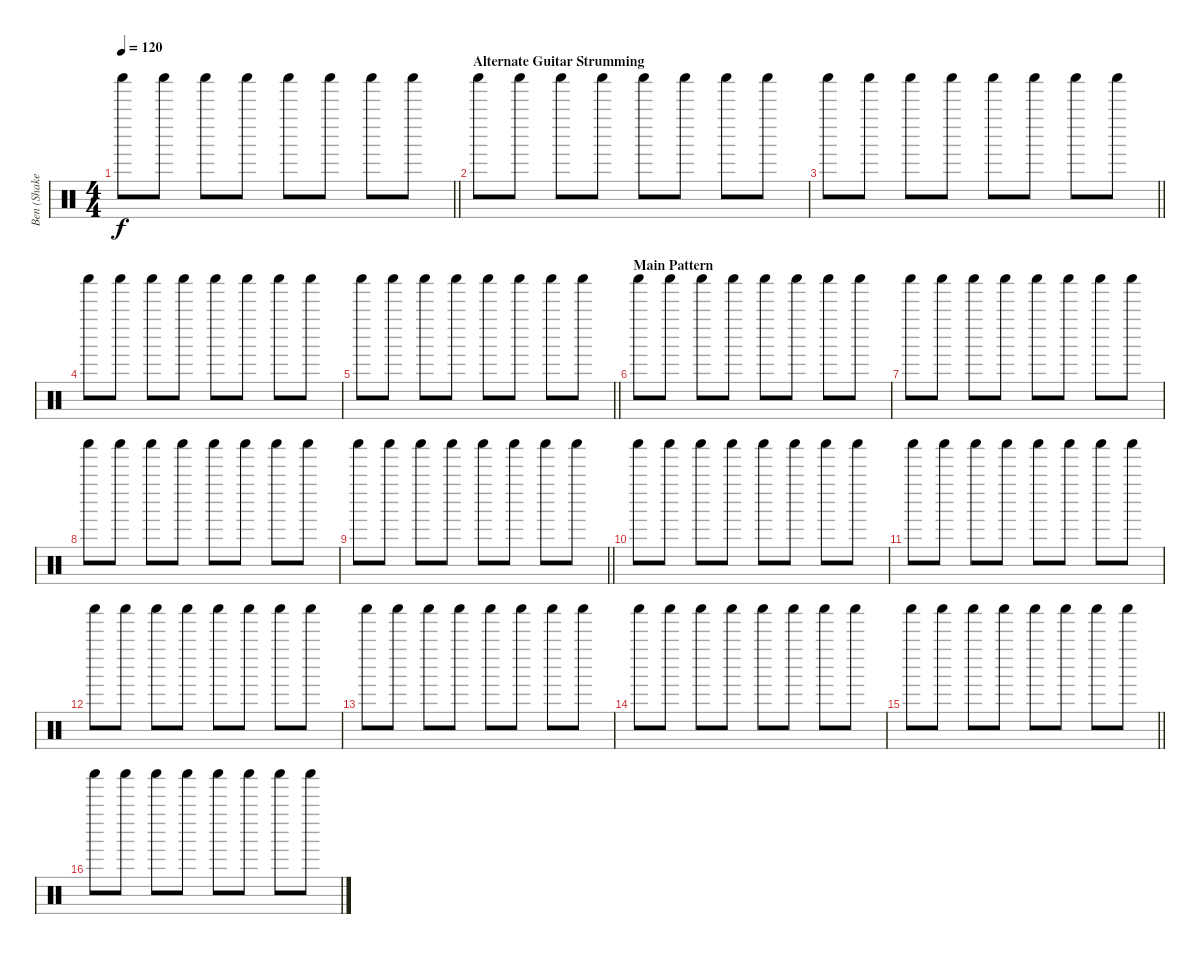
\track ("Ben (Shaker LOL)" "Ben (Shake") {instrument percussion}
\staff {score}
\articulation defaults
\ts (4 4)
\tempo 120
\clef neutral
\barLineRight lightlight
\ks c "Shaker (hit)".8{dy f} "Shaker (hit)".8 "Shaker (hit)".8 "Shaker (hit)".8 "Shaker (hit)".8 "Shaker (hit)".8 "Shaker (hit)".8 "Shaker (hit)".8
|
\section ("" "Alternate Guitar Strumming")
"Shaker (hit)".8 "Shaker (hit)".8 "Shaker (hit)".8 "Shaker (hit)".8 "Shaker (hit)".8 "Shaker (hit)".8 "Shaker (hit)".8 "Shaker (hit)".8 |
\barLineRight lightlight "Shaker (hit)".8 "Shaker (hit)".8 "Shaker (hit)".8 "Shaker (hit)".8 "Shaker (hit)".8 "Shaker (hit)".8 "Shaker (hit)".8 "Shaker (hit)".8
|
"Shaker (hit)".8 "Shaker (hit)".8 "Shaker (hit)".8 "Shaker (hit)".8 "Shaker (hit)".8 "Shaker (hit)".8 "Shaker (hit)".8 "Shaker (hit)".8 |
\barLineRight lightlight "Shaker (hit)".8 "Shaker (hit)".8 "Shaker (hit)".8 "Shaker (hit)".8 "Shaker (hit)".8 "Shaker (hit)".8 "Shaker (hit)".8 "Shaker (hit)".8
|
\section ("" "Main Pattern")
"Shaker (hit)".8 "Shaker (hit)".8 "Shaker (hit)".8 "Shaker (hit)".8 "Shaker (hit)".8 "Shaker (hit)".8 "Shaker (hit)".8 "Shaker (hit)".8 |
"Shaker (hit)".8 "Shaker (hit)".8 "Shaker (hit)".8 "Shaker (hit)".8 "Shaker (hit)".8 "Shaker (hit)".8 "Shaker (hit)".8 "Shaker (hit)".8 |
"Shaker (hit)".8 "Shaker (hit)".8 "Shaker (hit)".8 "Shaker (hit)".8 "Shaker (hit)".8 "Shaker (hit)".8 "Shaker (hit)".8 "Shaker (hit)".8 |
\barLineRight lightlight "Shaker (hit)".8 "Shaker (hit)".8 "Shaker (hit)".8 "Shaker (hit)".8 "Shaker (hit)".8 "Shaker (hit)".8 "Shaker (hit)".8 "Shaker (hit)".8
|
"Shaker (hit)".8 "Shaker (hit)".8 "Shaker (hit)".8 "Shaker (hit)".8 "Shaker (hit)".8 "Shaker (hit)".8 "Shaker (hit)".8 "Shaker (hit)".8 |
"Shaker (hit)".8 "Shaker (hit)".8 "Shaker (hit)".8 "Shaker (hit)".8 "Shaker (hit)".8 "Shaker (hit)".8 "Shaker (hit)".8 "Shaker (hit)".8 |
"Shaker (hit)".8 "Shaker (hit)".8 "Shaker (hit)".8 "Shaker (hit)".8 "Shaker (hit)".8 "Shaker (hit)".8 "Shaker (hit)".8 "Shaker (hit)".8 |
"Shaker (hit)".8 "Shaker (hit)".8 "Shaker (hit)".8 "Shaker (hit)".8 "Shaker (hit)".8 "Shaker (hit)".8 "Shaker (hit)".8 "Shaker (hit)".8 |
"Shaker (hit)".8 "Shaker (hit)".8 "Shaker (hit)".8 "Shaker (hit)".8 "Shaker (hit)".8 "Shaker (hit)".8 "Shaker (hit)".8 "Shaker (hit)".8 |
\barLineRight lightlight "Shaker (hit)".8 "Shaker (hit)".8 "Shaker (hit)".8 "Shaker (hit)".8 "Shaker (hit)".8 "Shaker (hit)".8 "Shaker (hit)".8 "Shaker (hit)".8
|
"Shaker (hit)".8 "Shaker (hit)".8 "Shaker (hit)".8 "Shaker (hit)".8 "Shaker (hit)".8 "Shaker (hit)".8 "Shaker (hit)".8 "Shaker (hit)".8
